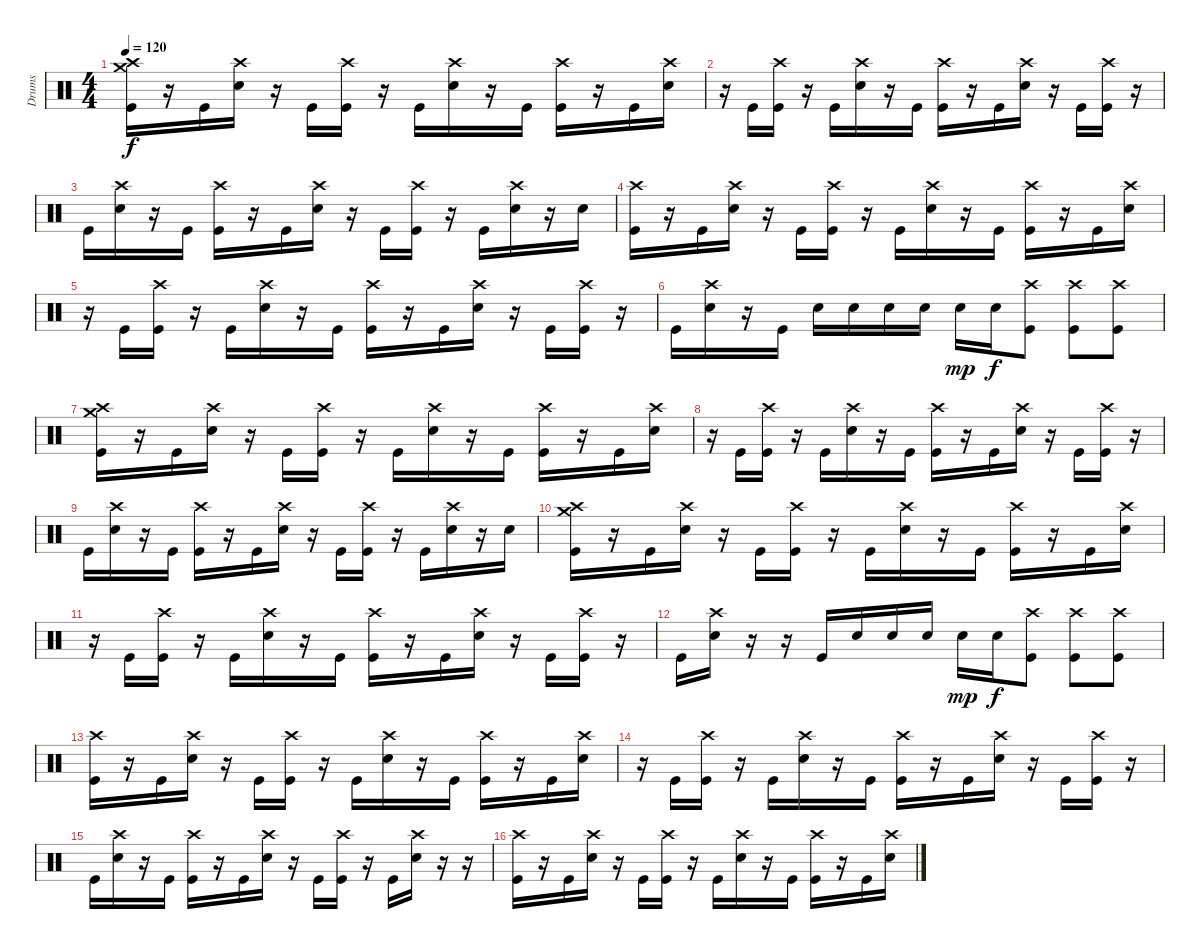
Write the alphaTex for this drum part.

\track ("Drums" "Drums") {instrument percussion}
\staff {score}
\articulation defaults
\ts (4 4)
\tempo 120
\clef neutral
\ks c
("Crash high (hit)" "Crash medium (hit)" "Kick (hit)").16{dy f} r.16 "Kick (hit)".16 ("Crash high (hit)" "Electric Snare (hit)").16 r.16 "Kick (hit)".16 ("Crash high (hit)" "Kick (hit)").16 r.16 "Kick (hit)".16 ("Crash high (hit)" "Electric Snare (hit)").16 r.16 "Kick (hit)".16 ("Crash high (hit)" "Kick (hit)").16 r.16 "Kick (hit)".16 ("Crash high (hit)" "Electric Snare (hit)").16 |
r.16 "Kick (hit)".16 ("Crash high (hit)" "Kick (hit)").16 r.16 "Kick (hit)".16 ("Crash high (hit)" "Electric Snare (hit)").16 r.16 "Kick (hit)".16 ("Crash high (hit)" "Kick (hit)").16 r.16 "Kick (hit)".16 ("Crash high (hit)" "Electric Snare (hit)").16 r.16 "Kick (hit)".16 ("Crash high (hit)" "Kick (hit)").16 r.16 |
"Kick (hit)".16 ("Crash high (hit)" "Electric Snare (hit)").16 r.16 "Kick (hit)".16 ("Crash high (hit)" "Kick (hit)").16 r.16 "Kick (hit)".16 ("Crash high (hit)" "Electric Snare (hit)").16 r.16 "Kick (hit)".16 ("Crash high (hit)" "Kick (hit)").16 r.16 "Kick (hit)".16 ("Crash high (hit)" "Electric Snare (hit)").16 r.16 "Electric Snare (hit)".16 |
("Crash high (hit)" "Kick (hit)").16 r.16 "Kick (hit)".16 ("Crash high (hit)" "Electric Snare (hit)").16 r.16 "Kick (hit)".16 ("Crash high (hit)" "Kick (hit)").16 r.16 "Kick (hit)".16 ("Crash high (hit)" "Electric Snare (hit)").16 r.16 "Kick (hit)".16 ("Crash high (hit)" "Kick (hit)").16 r.16 "Kick (hit)".16 ("Crash high (hit)" "Electric Snare (hit)").16 |
r.16 "Kick (hit)".16 ("Crash high (hit)" "Kick (hit)").16 r.16 "Kick (hit)".16 ("Crash high (hit)" "Electric Snare (hit)").16 r.16 "Kick (hit)".16 ("Crash high (hit)" "Kick (hit)").16 r.16 "Kick (hit)".16 ("Crash high (hit)" "Electric Snare (hit)").16 r.16 "Kick (hit)".16 ("Crash high (hit)" "Kick (hit)").16 r.16 |
"Kick (hit)".16 ("Crash high (hit)" "Electric Snare (hit)").16 r.16 "Kick (hit)".16 "Electric Snare (hit)".16 "Electric Snare (hit)".16 "Electric Snare (hit)".16 "Electric Snare (hit)".16 "Electric Snare (hit)".16{dy mp} "Electric Snare (hit)".16{dy f} ("Crash high (hit)" "Kick (hit)").8 ("Crash high (hit)" "Kick (hit)").8 ("Crash high (hit)" "Kick (hit)").8 |
("Crash high (hit)" "Crash medium (hit)" "Kick (hit)").16 r.16 "Kick (hit)".16 ("Crash high (hit)" "Electric Snare (hit)").16 r.16 "Kick (hit)".16 ("Crash high (hit)" "Kick (hit)").16 r.16 "Kick (hit)".16 ("Crash high (hit)" "Electric Snare (hit)").16 r.16 "Kick (hit)".16 ("Crash high (hit)" "Kick (hit)").16 r.16 "Kick (hit)".16 ("Crash high (hit)" "Electric Snare (hit)").16 |
r.16 "Kick (hit)".16 ("Crash high (hit)" "Kick (hit)").16 r.16 "Kick (hit)".16 ("Crash high (hit)" "Electric Snare (hit)").16 r.16 "Kick (hit)".16 ("Crash high (hit)" "Kick (hit)").16 r.16 "Kick (hit)".16 ("Crash high (hit)" "Electric Snare (hit)").16 r.16 "Kick (hit)".16 ("Crash high (hit)" "Kick (hit)").16 r.16 |
"Kick (hit)".16 ("Crash high (hit)" "Electric Snare (hit)").16 r.16 "Kick (hit)".16 ("Crash high (hit)" "Kick (hit)").16 r.16 "Kick (hit)".16 ("Crash high (hit)" "Electric Snare (hit)").16 r.16 "Kick (hit)".16 ("Crash high (hit)" "Kick (hit)").16 r.16 "Kick (hit)".16 ("Crash high (hit)" "Electric Snare (hit)").16 r.16 "Electric Snare (hit)".16 |
("Crash high (hit)" "Crash medium (hit)" "Kick (hit)").16 r.16 "Kick (hit)".16 ("Crash high (hit)" "Electric Snare (hit)").16 r.16 "Kick (hit)".16 ("Crash high (hit)" "Kick (hit)").16 r.16 "Kick (hit)".16 ("Crash high (hit)" "Electric Snare (hit)").16 r.16 "Kick (hit)".16 ("Crash high (hit)" "Kick (hit)").16 r.16 "Kick (hit)".16 ("Crash high (hit)" "Electric Snare (hit)").16 |
r.16 "Kick (hit)".16 ("Crash high (hit)" "Kick (hit)").16 r.16 "Kick (hit)".16 ("Crash high (hit)" "Electric Snare (hit)").16 r.16 "Kick (hit)".16 ("Crash high (hit)" "Kick (hit)").16 r.16 "Kick (hit)".16 ("Crash high (hit)" "Electric Snare (hit)").16 r.16 "Kick (hit)".16 ("Crash high (hit)" "Kick (hit)").16 r.16 |
"Kick (hit)".16 ("Crash high (hit)" "Electric Snare (hit)").16 r.16 r.16 "Kick (hit)".16 "Electric Snare (hit)".16 "Electric Snare (hit)".16 "Electric Snare (hit)".16 "Electric Snare (hit)".16{dy mp} "Electric Snare (hit)".16{dy f} ("Crash high (hit)" "Kick (hit)").8 ("Crash high (hit)" "Kick (hit)").8 ("Crash high (hit)" "Kick (hit)").8 |
("Crash high (hit)" "Kick (hit)").16 r.16 "Kick (hit)".16 ("Crash high (hit)" "Electric Snare (hit)").16 r.16 "Kick (hit)".16 ("Crash high (hit)" "Kick (hit)").16 r.16 "Kick (hit)".16 ("Crash high (hit)" "Electric Snare (hit)").16 r.16 "Kick (hit)".16 ("Crash high (hit)" "Kick (hit)").16 r.16 "Kick (hit)".16 ("Crash high (hit)" "Electric Snare (hit)").16 |
r.16 "Kick (hit)".16 ("Crash high (hit)" "Kick (hit)").16 r.16 "Kick (hit)".16 ("Crash high (hit)" "Electric Snare (hit)").16 r.16 "Kick (hit)".16 ("Crash high (hit)" "Kick (hit)").16 r.16 "Kick (hit)".16 ("Crash high (hit)" "Electric Snare (hit)").16 r.16 "Kick (hit)".16 ("Crash high (hit)" "Kick (hit)").16 r.16 |
"Kick (hit)".16 ("Crash high (hit)" "Electric Snare (hit)").16 r.16 "Kick (hit)".16 ("Crash high (hit)" "Kick (hit)").16 r.16 "Kick (hit)".16 ("Crash high (hit)" "Electric Snare (hit)").16 r.16 "Kick (hit)".16 ("Crash high (hit)" "Kick (hit)").16 r.16 "Kick (hit)".16 ("Crash high (hit)" "Electric Snare (hit)").16 r.16 r.16 |
("Crash high (hit)" "Kick (hit)").16 r.16 "Kick (hit)".16 ("Crash high (hit)" "Electric Snare (hit)").16 r.16 "Kick (hit)".16 ("Crash high (hit)" "Kick (hit)").16 r.16 "Kick (hit)".16 ("Crash high (hit)" "Electric Snare (hit)").16 r.16 "Kick (hit)".16 ("Crash high (hit)" "Kick (hit)").16 r.16 "Kick (hit)".16 ("Crash high (hit)" "Electric Snare (hit)").16
